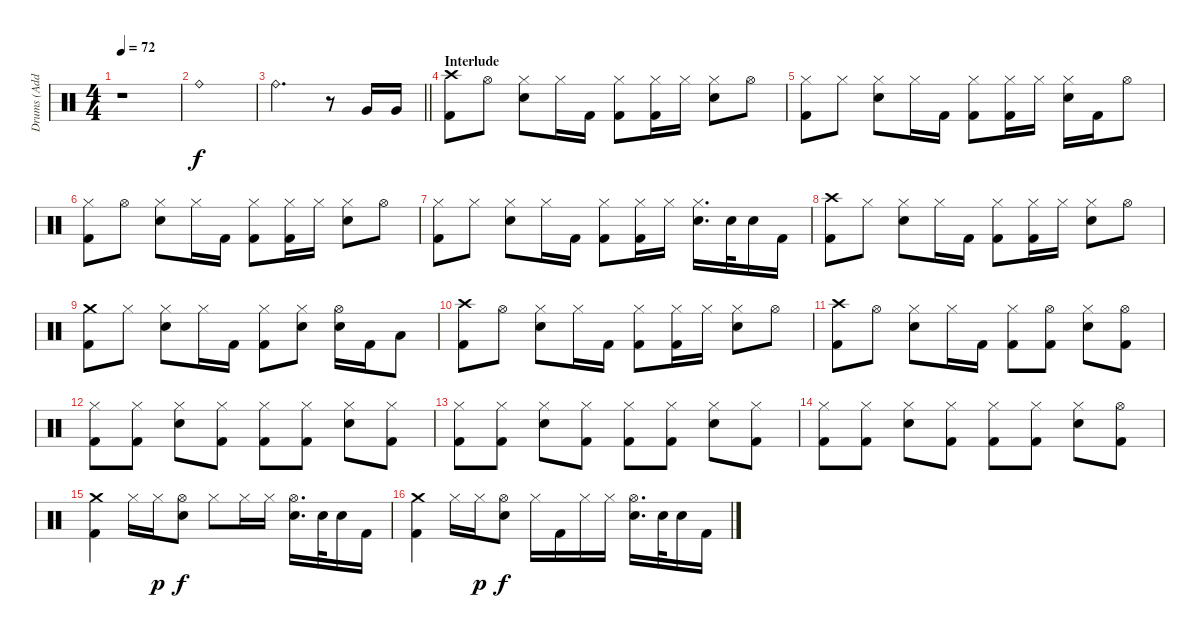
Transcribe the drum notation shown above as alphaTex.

\track ("Drums (Added by Leonardo_codev)" "Drums (Add") {instrument percussion}
\staff {score}
\articulation defaults
\ts (4 4)
\tempo 72
\clef neutral
\ks c
r.1{dy f} |
"Ride (bell)".1 |
\barLineRight lightlight "Ride (bell)".2{d}
r.8 "Very Low Tom (hit)".16 "Very Low Tom (hit)".16 |
\section ("" "Interlude")
("Crash high (hit)" "Kick (hit) 2").8 "Hi-Hat (open)".8 ("Hi-Hat (closed)" "Electric Snare (hit)").8 "Hi-Hat (closed)".16 "Kick (hit) 2".16 ("Hi-Hat (closed)" "Kick (hit) 2").8 ("Hi-Hat (closed)" "Kick (hit) 2").16 "Hi-Hat (closed)".16 ("Hi-Hat (closed)" "Electric Snare (hit)").8 "Hi-Hat (open)".8 |
("Hi-Hat (closed)" "Kick (hit) 2").8 "Hi-Hat (closed)".8 ("Hi-Hat (closed)" "Electric Snare (hit)").8 "Hi-Hat (closed)".16 "Kick (hit) 2".16 ("Hi-Hat (closed)" "Kick (hit) 2").8 ("Hi-Hat (closed)" "Kick (hit) 2").16 "Hi-Hat (closed)".16 ("Hi-Hat (closed)" "Electric Snare (hit)").16 "Kick (hit) 2".16 "Hi-Hat (open)".8 |
("Hi-Hat (closed)" "Kick (hit) 2").8 "Hi-Hat (open)".8 ("Hi-Hat (closed)" "Electric Snare (hit)").8 "Hi-Hat (closed)".16 "Kick (hit) 2".16 ("Hi-Hat (closed)" "Kick (hit) 2").8 ("Hi-Hat (closed)" "Kick (hit) 2").16 "Hi-Hat (closed)".16 ("Hi-Hat (closed)" "Electric Snare (hit)").8 "Hi-Hat (open)".8 |
("Hi-Hat (closed)" "Kick (hit) 2").8 "Hi-Hat (closed)".8 ("Hi-Hat (closed)" "Electric Snare (hit)").8 "Hi-Hat (closed)".16 "Kick (hit) 2".16 ("Hi-Hat (closed)" "Kick (hit) 2").8 ("Hi-Hat (closed)" "Kick (hit) 2").16 "Hi-Hat (closed)".16 ("Hi-Hat (closed)" "Electric Snare (hit)").16{d} "Electric Snare (hit)".32 "Electric Snare (hit)".16 "Kick (hit) 2".16 |
("Crash high (hit)" "Kick (hit) 2").8 "Hi-Hat (closed)".8 ("Hi-Hat (closed)" "Electric Snare (hit)").8 "Hi-Hat (closed)".16 "Kick (hit) 2".16 ("Hi-Hat (closed)" "Kick (hit) 2").8 ("Hi-Hat (closed)" "Kick (hit) 2").16 "Hi-Hat (closed)".16 ("Hi-Hat (closed)" "Electric Snare (hit)").8 "Hi-Hat (open)".8 |
("Crash medium (hit)" "Kick (hit) 2").8 "Hi-Hat (closed)".8 ("Hi-Hat (closed)" "Electric Snare (hit)").8 "Hi-Hat (closed)".16 "Kick (hit) 2".16 ("Hi-Hat (closed)" "Kick (hit) 2").8 ("Hi-Hat (closed)" "Electric Snare (hit)").8 ("Hi-Hat (open)" "Electric Snare (hit)").16 "Kick (hit) 2".16 "Low Tom (hit)".8 |
("Crash high (hit)" "Kick (hit) 2").8 "Hi-Hat (open)".8 ("Hi-Hat (closed)" "Electric Snare (hit)").8 "Hi-Hat (closed)".16 "Kick (hit) 2".16 ("Hi-Hat (closed)" "Kick (hit) 2").8 ("Hi-Hat (closed)" "Kick (hit) 2").16 "Hi-Hat (closed)".16 ("Hi-Hat (closed)" "Electric Snare (hit)").8 "Hi-Hat (open)".8 |
("Crash high (hit)" "Kick (hit) 2").8 "Hi-Hat (open)".8 ("Hi-Hat (closed)" "Electric Snare (hit)").8 "Hi-Hat (closed)".16 "Kick (hit) 2".16 ("Hi-Hat (closed)" "Kick (hit) 2").8 ("Hi-Hat (open)" "Kick (hit) 2").8 ("Hi-Hat (closed)" "Electric Snare (hit)").8 ("Hi-Hat (open)" "Kick (hit) 2").8 |
("Hi-Hat (closed)" "Kick (hit) 2").8 ("Hi-Hat (closed)" "Kick (hit) 2").8 ("Hi-Hat (closed)" "Electric Snare (hit)").8 ("Hi-Hat (closed)" "Kick (hit) 2").8 ("Hi-Hat (closed)" "Kick (hit) 2").8 ("Hi-Hat (closed)" "Kick (hit) 2").8 ("Hi-Hat (closed)" "Electric Snare (hit)").8 ("Hi-Hat (closed)" "Kick (hit) 2").8 |
("Hi-Hat (closed)" "Kick (hit) 2").8 ("Hi-Hat (closed)" "Kick (hit) 2").8 ("Hi-Hat (closed)" "Electric Snare (hit)").8 ("Hi-Hat (closed)" "Kick (hit) 2").8 ("Hi-Hat (closed)" "Kick (hit) 2").8 ("Hi-Hat (closed)" "Kick (hit) 2").8 ("Hi-Hat (closed)" "Electric Snare (hit)").8 ("Hi-Hat (closed)" "Kick (hit) 2").8 |
("Hi-Hat (closed)" "Kick (hit) 2").8 ("Hi-Hat (closed)" "Kick (hit) 2").8 ("Hi-Hat (closed)" "Electric Snare (hit)").8 ("Hi-Hat (closed)" "Kick (hit) 2").8 ("Hi-Hat (closed)" "Kick (hit) 2").8 ("Hi-Hat (closed)" "Kick (hit) 2").8 ("Hi-Hat (closed)" "Electric Snare (hit)").8 ("Hi-Hat (open)" "Kick (hit) 2").8 |
("Crash medium (hit)" "Kick (hit) 2").4 "Hi-Hat (closed)".16 "Hi-Hat (closed)".16{dy p} ("Hi-Hat (open)" "Electric Snare (hit)").8{dy f} "Hi-Hat (closed)".8 "Hi-Hat (closed)".16 "Hi-Hat (closed)".16 ("Hi-Hat (open)" "Electric Snare (hit)").16{d} "Electric Snare (hit)".32 "Electric Snare (hit)".16 "Kick (hit) 2".16 |
("Crash medium (hit)" "Kick (hit) 2").4 "Hi-Hat (closed)".16 "Hi-Hat (closed)".16{dy p} ("Hi-Hat (open)" "Electric Snare (hit)").8{dy f} "Hi-Hat (closed)".16 "Kick (hit) 2".16 "Hi-Hat (closed)".16 "Hi-Hat (closed)".16 ("Hi-Hat (open)" "Electric Snare (hit)").16{d} "Electric Snare (hit)".32 "Electric Snare (hit)".16 "Kick (hit) 2".16
